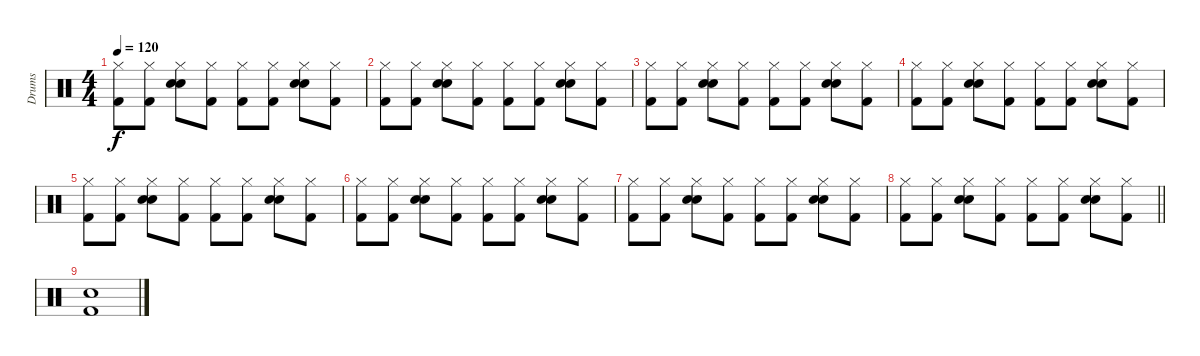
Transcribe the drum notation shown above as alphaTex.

\track ("Drums" "Drums") {instrument percussion}
\staff {score}
\articulation defaults
\ts (4 4)
\tempo 120
\clef neutral
\ks c
("Hi-Hat (closed)" "Kick (hit) 2").8{dy f} ("Hi-Hat (closed)" "Kick (hit) 2").8 ("Hand Clap (hit)" "Hi-Hat (closed)" "Electric Snare (hit)").8 ("Hi-Hat (closed)" "Kick (hit) 2").8 ("Hi-Hat (closed)" "Kick (hit) 2").8 ("Hi-Hat (closed)" "Kick (hit) 2").8 ("Hand Clap (hit)" "Hi-Hat (closed)" "Electric Snare (hit)").8 ("Hi-Hat (closed)" "Kick (hit) 2").8 |
("Hi-Hat (closed)" "Kick (hit) 2").8 ("Hi-Hat (closed)" "Kick (hit) 2").8 ("Hand Clap (hit)" "Hi-Hat (closed)" "Electric Snare (hit)").8 ("Hi-Hat (closed)" "Kick (hit) 2").8 ("Hi-Hat (closed)" "Kick (hit) 2").8 ("Hi-Hat (closed)" "Kick (hit) 2").8 ("Hand Clap (hit)" "Hi-Hat (closed)" "Electric Snare (hit)").8 ("Hi-Hat (closed)" "Kick (hit) 2").8 |
("Hi-Hat (closed)" "Kick (hit) 2").8 ("Hi-Hat (closed)" "Kick (hit) 2").8 ("Hand Clap (hit)" "Hi-Hat (closed)" "Electric Snare (hit)").8 ("Hi-Hat (closed)" "Kick (hit) 2").8 ("Hi-Hat (closed)" "Kick (hit) 2").8 ("Hi-Hat (closed)" "Kick (hit) 2").8 ("Hand Clap (hit)" "Hi-Hat (closed)" "Electric Snare (hit)").8 ("Hi-Hat (closed)" "Kick (hit) 2").8 |
("Hi-Hat (closed)" "Kick (hit) 2").8 ("Hi-Hat (closed)" "Kick (hit) 2").8 ("Hand Clap (hit)" "Hi-Hat (closed)" "Electric Snare (hit)").8 ("Hi-Hat (closed)" "Kick (hit) 2").8 ("Hi-Hat (closed)" "Kick (hit) 2").8 ("Hi-Hat (closed)" "Kick (hit) 2").8 ("Hand Clap (hit)" "Hi-Hat (closed)" "Electric Snare (hit)").8 ("Hi-Hat (closed)" "Kick (hit) 2").8 |
("Hi-Hat (closed)" "Kick (hit) 2").8 ("Hi-Hat (closed)" "Kick (hit) 2").8 ("Hand Clap (hit)" "Hi-Hat (closed)" "Electric Snare (hit)").8 ("Hi-Hat (closed)" "Kick (hit) 2").8 ("Hi-Hat (closed)" "Kick (hit) 2").8 ("Hi-Hat (closed)" "Kick (hit) 2").8 ("Hand Clap (hit)" "Hi-Hat (closed)" "Electric Snare (hit)").8 ("Hi-Hat (closed)" "Kick (hit) 2").8 |
("Hi-Hat (closed)" "Kick (hit) 2").8 ("Hi-Hat (closed)" "Kick (hit) 2").8 ("Hand Clap (hit)" "Hi-Hat (closed)" "Electric Snare (hit)").8 ("Hi-Hat (closed)" "Kick (hit) 2").8 ("Hi-Hat (closed)" "Kick (hit) 2").8 ("Hi-Hat (closed)" "Kick (hit) 2").8 ("Hand Clap (hit)" "Hi-Hat (closed)" "Electric Snare (hit)").8 ("Hi-Hat (closed)" "Kick (hit) 2").8 |
("Hi-Hat (closed)" "Kick (hit) 2").8 ("Hi-Hat (closed)" "Kick (hit) 2").8 ("Hand Clap (hit)" "Hi-Hat (closed)" "Electric Snare (hit)").8 ("Hi-Hat (closed)" "Kick (hit) 2").8 ("Hi-Hat (closed)" "Kick (hit) 2").8 ("Hi-Hat (closed)" "Kick (hit) 2").8 ("Hand Clap (hit)" "Hi-Hat (closed)" "Electric Snare (hit)").8 ("Hi-Hat (closed)" "Kick (hit) 2").8 |
\barLineRight lightlight
("Hi-Hat (closed)" "Kick (hit) 2").8 ("Hi-Hat (closed)" "Kick (hit) 2").8 ("Hand Clap (hit)" "Hi-Hat (closed)" "Electric Snare (hit)").8 ("Hi-Hat (closed)" "Kick (hit) 2").8 ("Hi-Hat (closed)" "Kick (hit) 2").8 ("Hi-Hat (closed)" "Kick (hit) 2").8 ("Hand Clap (hit)" "Hi-Hat (closed)" "Electric Snare (hit)").8 ("Hi-Hat (closed)" "Kick (hit) 2").8 |
("Hand Clap (hit)" "Kick (hit) 2").1
